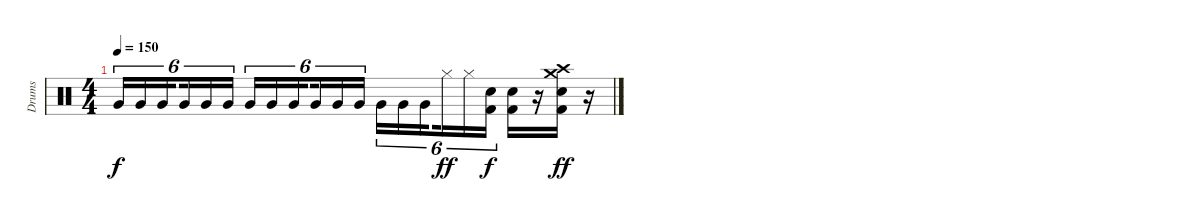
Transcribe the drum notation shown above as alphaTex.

\track ("Drums" "Drums") {instrument percussion}
\staff {score}
\articulation defaults
\ts (4 4)
\tempo 150
\clef neutral
\ks c "Very Low Tom (hit)".16{tu (6 4) dy f} "Very Low Tom (hit)".16{tu (6 4)} "Very Low Tom (hit)".16{tu (6 4) beam splitsecondary} "Very Low Tom (hit)".16{tu (6 4)} "Very Low Tom (hit)".16{tu (6 4)} "Very Low Tom (hit)".16{tu (6 4)} "Very Low Tom (hit)".16{tu (6 4)} "Very Low Tom (hit)".16{tu (6 4)} "Very Low Tom (hit)".16{tu (6 4) beam splitsecondary} "Very Low Tom (hit)".16{tu (6 4)} "Very Low Tom (hit)".16{tu (6 4)} "Very Low Tom (hit)".16{tu (6 4)} "Very Low Tom (hit)".16{tu (6 4)} "Very Low Tom (hit)".16{tu (6 4)} "Very Low Tom (hit)".16{tu (6 4) beam splitsecondary} "Hi-Hat (closed)".16{tu (6 4) dy ff} "Hi-Hat (closed)".16{tu (6 4)}
("Electric Snare (hit)" "Kick (hit) 2").16{tu (6 4) dy f} ("Electric Snare (hit)" "Kick (hit) 2").16 r.16 ("Crash medium (hit)" "Crash high (hit)" "Electric Snare (hit)" "Kick (hit) 2").16{dy ff} r.16
